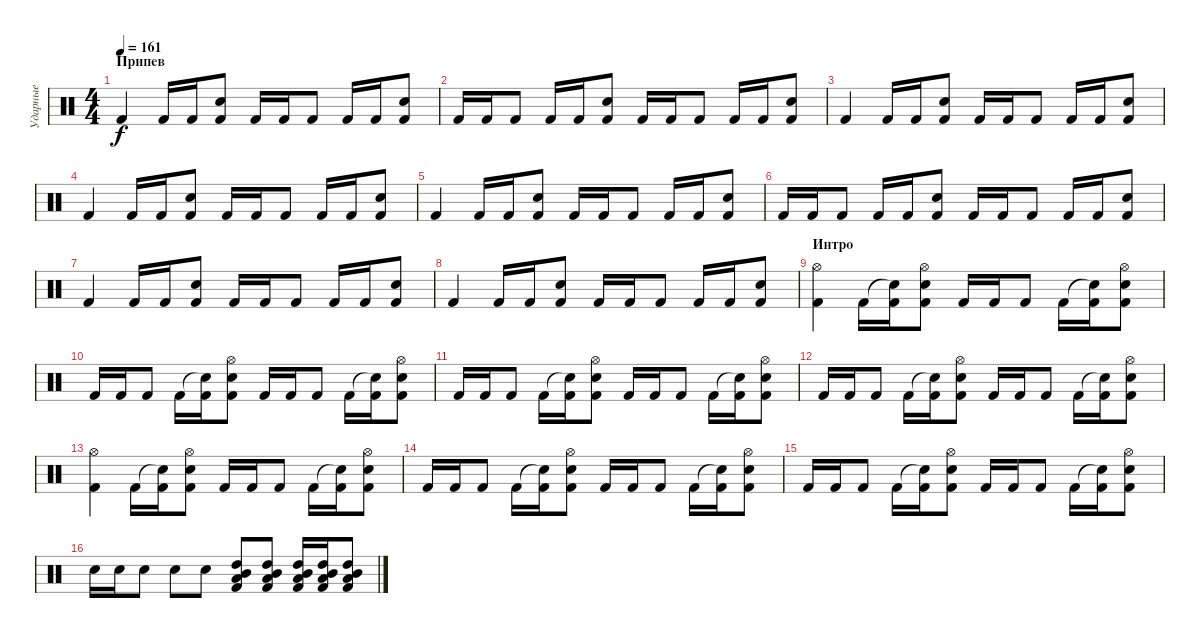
\track ("Ударные" "Ударные") {instrument percussion}
\staff {score}
\articulation defaults
\ts (4 4)
\section ("" "Припев ")
\tempo 161
\clef neutral
\ks c "Kick (hit) 2".4{dy f} "Kick (hit) 2".16 "Kick (hit) 2".16
("Snare (hit) 2" "Kick (hit) 2").8 "Kick (hit) 2".16 "Kick (hit) 2".16 "Kick (hit) 2".8 "Kick (hit) 2".16 "Kick (hit) 2".16 ("Snare (hit) 2" "Kick (hit) 2").8 |
"Kick (hit) 2".16 "Kick (hit) 2".16 "Kick (hit) 2".8 "Kick (hit) 2".16 "Kick (hit) 2".16 ("Snare (hit) 2" "Kick (hit) 2").8 "Kick (hit) 2".16 "Kick (hit) 2".16 "Kick (hit) 2".8 "Kick (hit) 2".16 "Kick (hit) 2".16 ("Snare (hit) 2" "Kick (hit) 2").8 |
"Kick (hit) 2".4 "Kick (hit) 2".16 "Kick (hit) 2".16 ("Snare (hit) 2" "Kick (hit) 2").8 "Kick (hit) 2".16 "Kick (hit) 2".16 "Kick (hit) 2".8 "Kick (hit) 2".16 "Kick (hit) 2".16 ("Snare (hit) 2" "Kick (hit) 2").8 |
"Kick (hit) 2".4 "Kick (hit) 2".16 "Kick (hit) 2".16 ("Snare (hit) 2" "Kick (hit) 2").8 "Kick (hit) 2".16 "Kick (hit) 2".16 "Kick (hit) 2".8 "Kick (hit) 2".16 "Kick (hit) 2".16 ("Snare (hit) 2" "Kick (hit) 2").8 |
"Kick (hit) 2".4 "Kick (hit) 2".16 "Kick (hit) 2".16 ("Snare (hit) 2" "Kick (hit) 2").8 "Kick (hit) 2".16 "Kick (hit) 2".16 "Kick (hit) 2".8 "Kick (hit) 2".16 "Kick (hit) 2".16 ("Snare (hit) 2" "Kick (hit) 2").8 |
"Kick (hit) 2".16 "Kick (hit) 2".16 "Kick (hit) 2".8 "Kick (hit) 2".16 "Kick (hit) 2".16 ("Snare (hit) 2" "Kick (hit) 2").8 "Kick (hit) 2".16 "Kick (hit) 2".16 "Kick (hit) 2".8 "Kick (hit) 2".16 "Kick (hit) 2".16 ("Snare (hit) 2" "Kick (hit) 2").8 |
"Kick (hit) 2".4 "Kick (hit) 2".16 "Kick (hit) 2".16 ("Snare (hit) 2" "Kick (hit) 2").8 "Kick (hit) 2".16 "Kick (hit) 2".16 "Kick (hit) 2".8 "Kick (hit) 2".16 "Kick (hit) 2".16 ("Snare (hit) 2" "Kick (hit) 2").8 |
"Kick (hit) 2".4 "Kick (hit) 2".16 "Kick (hit) 2".16 ("Snare (hit) 2" "Kick (hit) 2").8 "Kick (hit) 2".16 "Kick (hit) 2".16 "Kick (hit) 2".8 "Kick (hit) 2".16 "Kick (hit) 2".16 ("Snare (hit) 2" "Kick (hit) 2").8 |
\section ("" "Интро")
("Hi-Hat (open)" "Kick (hit) 2").4 "Kick (hit) 2".16 ("Snare (hit)"{t} "Kick (hit) 2").16 ("Hi-Hat (open)" "Snare (hit) 2" "Kick (hit) 2").8 "Kick (hit) 2".16 "Kick (hit) 2".16 "Kick (hit) 2".8 "Kick (hit) 2".16 ("Snare (hit)"{t} "Kick (hit) 2").16 ("Hi-Hat (open)" "Snare (hit) 2" "Kick (hit) 2").8 |
"Kick (hit) 2".16 "Kick (hit) 2".16 "Kick (hit) 2".8 "Kick (hit) 2".16 ("Snare (hit)"{t} "Kick (hit) 2").16 ("Hi-Hat (open)" "Snare (hit) 2" "Kick (hit) 2").8 "Kick (hit) 2".16 "Kick (hit) 2".16 "Kick (hit) 2".8 "Kick (hit) 2".16 ("Snare (hit)"{t} "Kick (hit) 2").16 ("Hi-Hat (open)" "Snare (hit) 2" "Kick (hit) 2").8 |
"Kick (hit) 2".16 "Kick (hit) 2".16 "Kick (hit) 2".8 "Kick (hit) 2".16 ("Snare (hit)"{t} "Kick (hit) 2").16 ("Hi-Hat (open)" "Snare (hit) 2" "Kick (hit) 2").8 "Kick (hit) 2".16 "Kick (hit) 2".16 "Kick (hit) 2".8 "Kick (hit) 2".16 ("Snare (hit)"{t} "Kick (hit) 2").16 ("Hi-Hat (open)" "Snare (hit) 2" "Kick (hit) 2").8 |
"Kick (hit) 2".16 "Kick (hit) 2".16 "Kick (hit) 2".8 "Kick (hit) 2".16 ("Snare (hit)"{t} "Kick (hit) 2").16 ("Hi-Hat (open)" "Snare (hit) 2" "Kick (hit) 2").8 "Kick (hit) 2".16 "Kick (hit) 2".16 "Kick (hit) 2".8 "Kick (hit) 2".16 ("Snare (hit)"{t} "Kick (hit) 2").16 ("Hi-Hat (open)" "Snare (hit) 2" "Kick (hit) 2").8 |
("Hi-Hat (open)" "Kick (hit) 2").4 "Kick (hit) 2".16 ("Snare (hit)"{t} "Kick (hit) 2").16 ("Hi-Hat (open)" "Snare (hit) 2" "Kick (hit) 2").8 "Kick (hit) 2".16 "Kick (hit) 2".16 "Kick (hit) 2".8 "Kick (hit) 2".16 ("Snare (hit)"{t} "Kick (hit) 2").16 ("Hi-Hat (open)" "Snare (hit) 2" "Kick (hit) 2").8 |
"Kick (hit) 2".16 "Kick (hit) 2".16 "Kick (hit) 2".8 "Kick (hit) 2".16 ("Snare (hit)"{t} "Kick (hit) 2").16 ("Hi-Hat (open)" "Snare (hit) 2" "Kick (hit) 2").8 "Kick (hit) 2".16 "Kick (hit) 2".16 "Kick (hit) 2".8 "Kick (hit) 2".16 ("Snare (hit)"{t} "Kick (hit) 2").16 ("Hi-Hat (open)" "Snare (hit) 2" "Kick (hit) 2").8 |
"Kick (hit) 2".16 "Kick (hit) 2".16 "Kick (hit) 2".8 "Kick (hit) 2".16 ("Snare (hit)"{t} "Kick (hit) 2").16 ("Hi-Hat (open)" "Snare (hit) 2" "Kick (hit) 2").8 "Kick (hit) 2".16 "Kick (hit) 2".16 "Kick (hit) 2".8 "Kick (hit) 2".16 ("Snare (hit)"{t} "Kick (hit) 2").16 ("Hi-Hat (open)" "Snare (hit) 2" "Kick (hit) 2").8 |
"Snare (hit) 2".16 "Snare (hit) 2".16 "Snare (hit) 2".8 "Snare (hit) 2".8 "Snare (hit) 2".8 ("Mid Tom (hit)" "Low Tom (hit)" "Kick (hit) 2" "High Tom (hit)").8 ("Mid Tom (hit)" "Low Tom (hit)" "Kick (hit) 2" "High Tom (hit)").8 ("Mid Tom (hit)" "Low Tom (hit)" "Kick (hit) 2" "High Tom (hit)").16 ("Mid Tom (hit)" "Low Tom (hit)" "Kick (hit) 2" "High Tom (hit)").16 ("Mid Tom (hit)" "Low Tom (hit)" "Kick (hit) 2" "High Tom (hit)").8
